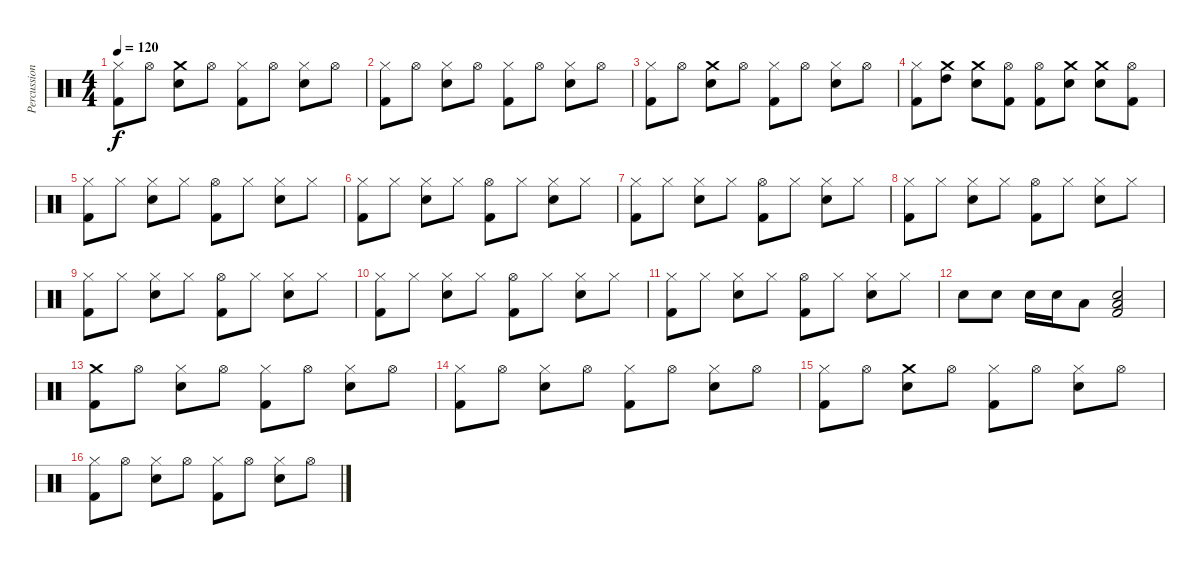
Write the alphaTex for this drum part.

\track ("Percussion" "Percussion") {instrument percussion}
\staff {score}
\articulation defaults
\ts (4 4)
\tempo 120
\clef neutral
\ks c
("Hi-Hat (closed)" "Kick (hit) 2").8{dy f} "Hi-Hat (open)".8 ("Crash medium (hit)" "Snare (hit) 2").8 "Hi-Hat (open)".8 ("Hi-Hat (closed)" "Kick (hit) 2").8 "Hi-Hat (open)".8 ("Hi-Hat (closed)" "Snare (hit) 2").8 "Hi-Hat (open)".8 |
("Hi-Hat (closed)" "Kick (hit) 2").8 "Hi-Hat (open)".8 ("Hi-Hat (closed)" "Snare (hit) 2").8 "Hi-Hat (open)".8 ("Hi-Hat (closed)" "Kick (hit) 2").8 "Hi-Hat (open)".8 ("Hi-Hat (closed)" "Snare (hit) 2").8 "Hi-Hat (open)".8 |
("Hi-Hat (closed)" "Kick (hit) 2").8 "Hi-Hat (open)".8 ("Crash medium (hit)" "Snare (hit) 2").8 "Hi-Hat (open)".8 ("Hi-Hat (closed)" "Kick (hit) 2").8 "Hi-Hat (open)".8 ("Hi-Hat (closed)" "Snare (hit) 2").8 "Hi-Hat (open)".8 |
("Hi-Hat (closed)" "Kick (hit) 2").8 ("Crash medium (hit)" "High Tom (hit)").8 ("Crash medium (hit)" "Snare (hit) 2").8 ("Kick (hit) 2" "Hi-Hat (open)").8 ("Hi-Hat (open)" "Kick (hit) 2").8 ("Crash medium (hit)" "Snare (hit) 2").8 ("Crash medium (hit)" "Snare (hit) 2").8 ("Hi-Hat (open)" "Kick (hit) 2").8 |
("Hi-Hat (closed)" "Kick (hit) 2").8 "Hi-Hat (closed)".8 ("Hi-Hat (closed)" "Snare (hit) 2").8 "Hi-Hat (closed)".8 ("Hi-Hat (open)" "Kick (hit) 2").8 "Hi-Hat (closed)".8 ("Hi-Hat (closed)" "Snare (hit) 2").8 "Hi-Hat (closed)".8 |
("Hi-Hat (closed)" "Kick (hit) 2").8 "Hi-Hat (closed)".8 ("Hi-Hat (closed)" "Snare (hit) 2").8 "Hi-Hat (closed)".8 ("Hi-Hat (open)" "Kick (hit) 2").8 "Hi-Hat (closed)".8 ("Hi-Hat (closed)" "Snare (hit) 2").8 "Hi-Hat (closed)".8 |
("Hi-Hat (closed)" "Kick (hit) 2").8 "Hi-Hat (closed)".8 ("Hi-Hat (closed)" "Snare (hit) 2").8 "Hi-Hat (closed)".8 ("Hi-Hat (open)" "Kick (hit) 2").8 "Hi-Hat (closed)".8 ("Hi-Hat (closed)" "Snare (hit) 2").8 "Hi-Hat (closed)".8 |
("Hi-Hat (closed)" "Kick (hit) 2").8 "Hi-Hat (closed)".8 ("Hi-Hat (closed)" "Snare (hit) 2").8 "Hi-Hat (closed)".8 ("Hi-Hat (open)" "Kick (hit) 2").8 "Hi-Hat (closed)".8 ("Hi-Hat (closed)" "Snare (hit) 2").8 "Hi-Hat (closed)".8 |
("Hi-Hat (closed)" "Kick (hit) 2").8 "Hi-Hat (closed)".8 ("Hi-Hat (closed)" "Snare (hit) 2").8 "Hi-Hat (closed)".8 ("Hi-Hat (open)" "Kick (hit) 2").8 "Hi-Hat (closed)".8 ("Hi-Hat (closed)" "Snare (hit) 2").8 "Hi-Hat (closed)".8 |
("Hi-Hat (closed)" "Kick (hit) 2").8 "Hi-Hat (closed)".8 ("Hi-Hat (closed)" "Snare (hit) 2").8 "Hi-Hat (closed)".8 ("Hi-Hat (open)" "Kick (hit) 2").8 "Hi-Hat (closed)".8 ("Hi-Hat (closed)" "Snare (hit) 2").8 "Hi-Hat (closed)".8 |
("Hi-Hat (closed)" "Kick (hit) 2").8 "Hi-Hat (closed)".8 ("Hi-Hat (closed)" "Snare (hit) 2").8 "Hi-Hat (closed)".8 ("Hi-Hat (open)" "Kick (hit) 2").8 "Hi-Hat (closed)".8 ("Hi-Hat (closed)" "Snare (hit) 2").8 "Hi-Hat (closed)".8 |
"Snare (hit) 2".8 "Snare (hit) 2".8 "Snare (hit) 2".16 "Snare (hit) 2".16 "Low Tom (hit)".8 ("Kick (hit) 2" "Low Floor Tom (hit)" "Snare (hit) 2").2 |
("Crash medium (hit)" "Kick (hit) 2").8 "Hi-Hat (open)".8 ("Hi-Hat (closed)" "Snare (hit) 2").8 "Hi-Hat (open)".8 ("Hi-Hat (closed)" "Kick (hit) 2").8 "Hi-Hat (open)".8 ("Hi-Hat (closed)" "Snare (hit) 2").8 "Hi-Hat (open)".8 |
("Hi-Hat (closed)" "Kick (hit) 2").8 "Hi-Hat (open)".8 ("Hi-Hat (closed)" "Snare (hit) 2").8 "Hi-Hat (open)".8 ("Hi-Hat (closed)" "Kick (hit) 2").8 "Hi-Hat (open)".8 ("Hi-Hat (closed)" "Snare (hit) 2").8 "Hi-Hat (open)".8 |
("Hi-Hat (closed)" "Kick (hit) 2").8 "Hi-Hat (open)".8 ("Crash medium (hit)" "Snare (hit) 2").8 "Hi-Hat (open)".8 ("Hi-Hat (closed)" "Kick (hit) 2").8 "Hi-Hat (open)".8 ("Hi-Hat (closed)" "Snare (hit) 2").8 "Hi-Hat (open)".8 |
("Hi-Hat (closed)" "Kick (hit) 2").8 "Hi-Hat (open)".8 ("Hi-Hat (closed)" "Snare (hit) 2").8 "Hi-Hat (open)".8 ("Hi-Hat (closed)" "Kick (hit) 2").8 "Hi-Hat (open)".8 ("Hi-Hat (closed)" "Snare (hit) 2").8 "Hi-Hat (open)".8
